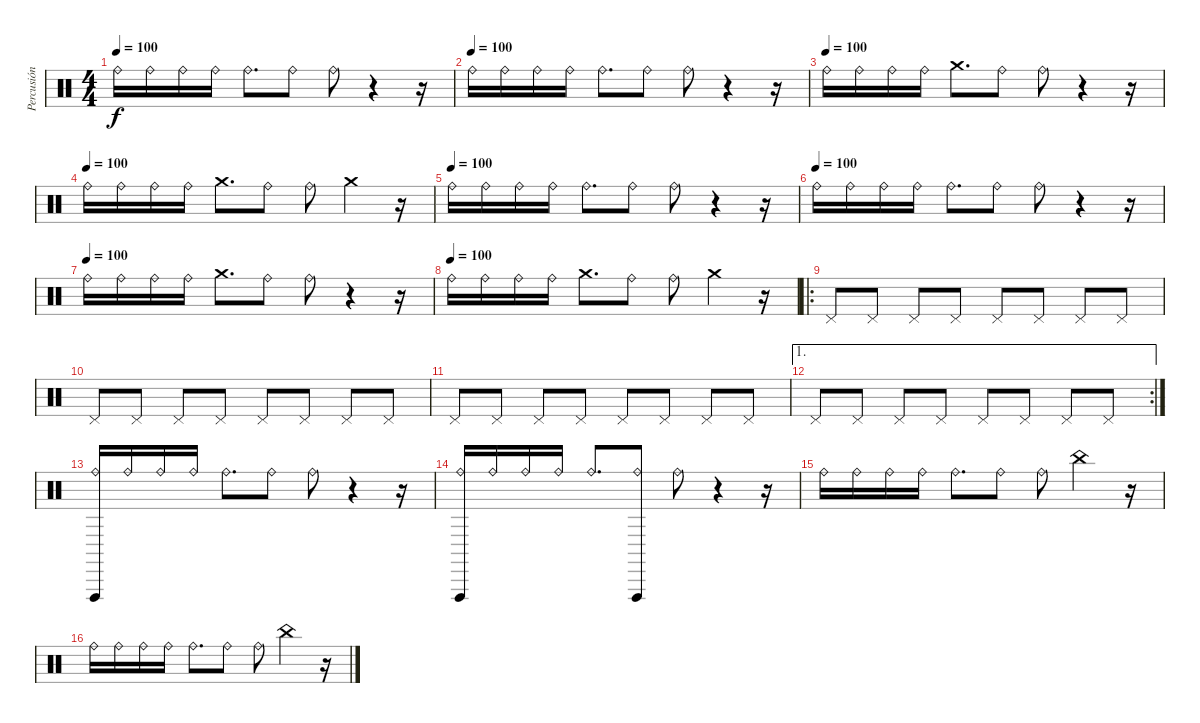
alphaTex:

\track ("Percusión" "Percusión") {instrument percussion}
\staff {score}
\articulation defaults
\ts (4 4)
\tempo 100
\clef neutral
\ks c "Ride (bell)".16{dy f} "Ride (bell)".16 "Ride (bell)".16 "Ride (bell)".16 "Ride (bell)".8{d} "Ride (bell)".8 "Ride (bell)".8
r.4 r.16 |
\tempo (100)
"Ride (bell)".16 "Ride (bell)".16 "Ride (bell)".16 "Ride (bell)".16 "Ride (bell)".8{d} "Ride (bell)".8 "Ride (bell)".8 r.4 r.16 |
\tempo (100)
"Ride (bell)".16 "Ride (bell)".16 "Ride (bell)".16 "Ride (bell)".16 "Crash medium (hit)".8{d} "Ride (bell)".8 "Ride (bell)".8 r.4 r.16 |
\tempo (100)
"Ride (bell)".16 "Ride (bell)".16 "Ride (bell)".16 "Ride (bell)".16 "Crash medium (hit)".8{d} "Ride (bell)".8 "Ride (bell)".8 "Crash medium (hit)".4 r.16 |
\tempo (100)
"Ride (bell)".16 "Ride (bell)".16 "Ride (bell)".16 "Ride (bell)".16 "Ride (bell)".8{d} "Ride (bell)".8 "Ride (bell)".8 r.4 r.16 |
\tempo (100)
"Ride (bell)".16 "Ride (bell)".16 "Ride (bell)".16 "Ride (bell)".16 "Ride (bell)".8{d} "Ride (bell)".8 "Ride (bell)".8 r.4 r.16 |
\tempo (100)
"Ride (bell)".16 "Ride (bell)".16 "Ride (bell)".16 "Ride (bell)".16 "Crash medium (hit)".8{d} "Ride (bell)".8 "Ride (bell)".8 r.4 r.16 |
\tempo (100)
"Ride (bell)".16 "Ride (bell)".16 "Ride (bell)".16 "Ride (bell)".16 "Crash medium (hit)".8{d} "Ride (bell)".8 "Ride (bell)".8 "Crash medium (hit)".4 r.16 |
\ro "Pedal Hi-Hat (hit)".8 "Pedal Hi-Hat (hit)".8 "Pedal Hi-Hat (hit)".8 "Pedal Hi-Hat (hit)".8 "Pedal Hi-Hat (hit)".8 "Pedal Hi-Hat (hit)".8 "Pedal Hi-Hat (hit)".8 "Pedal Hi-Hat (hit)".8
|
"Pedal Hi-Hat (hit)".8 "Pedal Hi-Hat (hit)".8 "Pedal Hi-Hat (hit)".8 "Pedal Hi-Hat (hit)".8 "Pedal Hi-Hat (hit)".8 "Pedal Hi-Hat (hit)".8 "Pedal Hi-Hat (hit)".8 "Pedal Hi-Hat (hit)".8 |
"Pedal Hi-Hat (hit)".8 "Pedal Hi-Hat (hit)".8 "Pedal Hi-Hat (hit)".8 "Pedal Hi-Hat (hit)".8 "Pedal Hi-Hat (hit)".8 "Pedal Hi-Hat (hit)".8 "Pedal Hi-Hat (hit)".8 "Pedal Hi-Hat (hit)".8 |
\ae 1
\rc 2 "Pedal Hi-Hat (hit)".8 "Pedal Hi-Hat (hit)".8 "Pedal Hi-Hat (hit)".8 "Pedal Hi-Hat (hit)".8 "Pedal Hi-Hat (hit)".8 "Pedal Hi-Hat (hit)".8 "Pedal Hi-Hat (hit)".8 "Pedal Hi-Hat (hit)".8
|
("Ride (bell)" "Vibraslap (hit)").16 "Ride (bell)".16 "Ride (bell)".16 "Ride (bell)".16 "Ride (bell)".8{d} "Ride (bell)".8 "Ride (bell)".8 r.4 r.16 |
("Ride (bell)" "Vibraslap (hit)").16 "Ride (bell)".16 "Ride (bell)".16 "Ride (bell)".16 "Ride (bell)".8{d} ("Ride (bell)" "Vibraslap (hit)").8 "Ride (bell)".8 r.4 r.16 |
"Ride (bell)".16 "Ride (bell)".16 "Ride (bell)".16 "Ride (bell)".16 "Ride (bell)".8{d} "Ride (bell)".8 "Ride (bell)".8 "China (hit)".4 r.16 |
"Ride (bell)".16 "Ride (bell)".16 "Ride (bell)".16 "Ride (bell)".16 "Ride (bell)".8{d} "Ride (bell)".8 "Ride (bell)".8 "China (hit)".4 r.16
